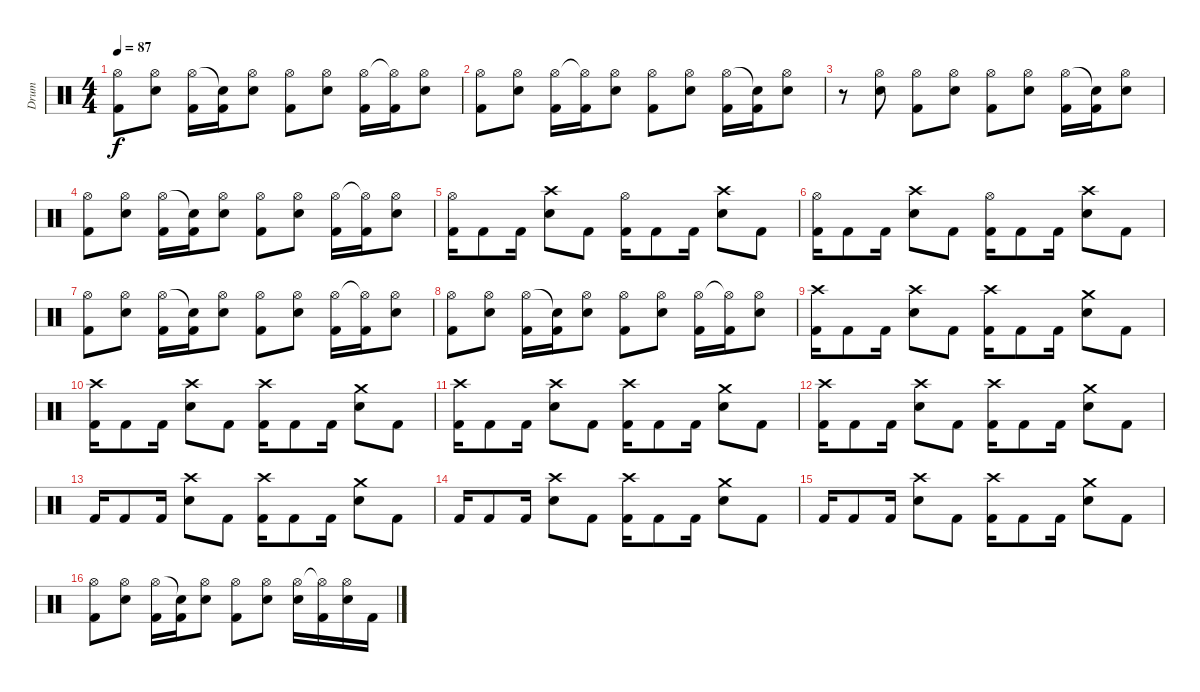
\track ("Drum" "Drum") {instrument percussion}
\staff {score}
\articulation defaults
\ts (4 4)
\tempo 87
\clef neutral
\ks c
("Hi-Hat (open)" "Kick (hit) 2").8{dy f} ("Hi-Hat (open)" "Electric Snare (hit)").8 ("Hi-Hat (open)" "Kick (hit) 2").16 ("Snare (hit)"{t} "Kick (hit) 2").16 ("Hi-Hat (open)" "Electric Snare (hit)").8 ("Hi-Hat (open)" "Kick (hit) 2").8 ("Hi-Hat (open)" "Electric Snare (hit)").8 ("Hi-Hat (open)" "Kick (hit) 2").16 ("Hi-Hat (open)"{t} "Kick (hit) 2").16 ("Hi-Hat (open)" "Electric Snare (hit)").8 |
("Hi-Hat (open)" "Kick (hit) 2").8 ("Hi-Hat (open)" "Electric Snare (hit)").8 ("Hi-Hat (open)" "Kick (hit) 2").16 ("Hi-Hat (open)"{t} "Kick (hit) 2").16 ("Hi-Hat (open)" "Electric Snare (hit)").8 ("Hi-Hat (open)" "Kick (hit) 2").8 ("Hi-Hat (open)" "Electric Snare (hit)").8 ("Hi-Hat (open)" "Kick (hit) 2").16 ("Snare (hit)"{t} "Kick (hit) 2").16 ("Hi-Hat (open)" "Electric Snare (hit)").8 |
r.8 ("Hi-Hat (open)" "Electric Snare (hit)").8 ("Hi-Hat (open)" "Kick (hit) 2").8 ("Hi-Hat (open)" "Electric Snare (hit)").8 ("Hi-Hat (open)" "Kick (hit) 2").8 ("Hi-Hat (open)" "Electric Snare (hit)").8 ("Hi-Hat (open)" "Kick (hit) 2").16 ("Snare (hit)"{t} "Kick (hit) 2").16 ("Hi-Hat (open)" "Electric Snare (hit)").8 |
("Hi-Hat (open)" "Kick (hit) 2").8 ("Hi-Hat (open)" "Electric Snare (hit)").8 ("Hi-Hat (open)" "Kick (hit) 2").16 ("Snare (hit)"{t} "Kick (hit) 2").16 ("Hi-Hat (open)" "Electric Snare (hit)").8 ("Hi-Hat (open)" "Kick (hit) 2").8 ("Hi-Hat (open)" "Electric Snare (hit)").8 ("Hi-Hat (open)" "Kick (hit) 2").16 ("Hi-Hat (open)"{t} "Kick (hit) 2").16 ("Hi-Hat (open)" "Electric Snare (hit)").8 |
("Hi-Hat (open)" "Kick (hit) 2").16 "Kick (hit) 2".8 "Kick (hit) 2".16 ("Crash high (hit)" "Electric Snare (hit)").8 "Kick (hit) 2".8 ("Hi-Hat (open)" "Kick (hit) 2").16 "Kick (hit) 2".8 "Kick (hit) 2".16 ("Crash high (hit)" "Electric Snare (hit)").8 "Kick (hit) 2".8 |
("Hi-Hat (open)" "Kick (hit) 2").16 "Kick (hit) 2".8 "Kick (hit) 2".16 ("Crash high (hit)" "Electric Snare (hit)").8 "Kick (hit) 2".8 ("Hi-Hat (open)" "Kick (hit) 2").16 "Kick (hit) 2".8 "Kick (hit) 2".16 ("Crash high (hit)" "Electric Snare (hit)").8 "Kick (hit) 2".8 |
("Hi-Hat (open)" "Kick (hit) 2").8 ("Hi-Hat (open)" "Electric Snare (hit)").8 ("Hi-Hat (open)" "Kick (hit) 2").16 ("Snare (hit)"{t} "Kick (hit) 2").16 ("Hi-Hat (open)" "Electric Snare (hit)").8 ("Hi-Hat (open)" "Kick (hit) 2").8 ("Hi-Hat (open)" "Electric Snare (hit)").8 ("Hi-Hat (open)" "Kick (hit) 2").16 ("Hi-Hat (open)"{t} "Kick (hit) 2").16 ("Hi-Hat (open)" "Electric Snare (hit)").8 |
("Hi-Hat (open)" "Kick (hit) 2").8 ("Hi-Hat (open)" "Electric Snare (hit)").8 ("Hi-Hat (open)" "Kick (hit) 2").16 ("Snare (hit)"{t} "Kick (hit) 2").16 ("Hi-Hat (open)" "Electric Snare (hit)").8 ("Hi-Hat (open)" "Kick (hit) 2").8 ("Hi-Hat (open)" "Electric Snare (hit)").8 ("Hi-Hat (open)" "Kick (hit) 2").16 ("Hi-Hat (open)"{t} "Kick (hit) 2").16 ("Hi-Hat (open)" "Electric Snare (hit)").8 |
("Crash high (hit)" "Kick (hit) 2").16 "Kick (hit) 2".8 "Kick (hit) 2".16 ("Crash high (hit)" "Electric Snare (hit)").8 "Kick (hit) 2".8 ("Crash high (hit)" "Kick (hit) 2").16 "Kick (hit) 2".8 "Kick (hit) 2".16 ("Crash medium (hit)" "Electric Snare (hit)").8 "Kick (hit) 2".8 |
("Crash high (hit)" "Kick (hit) 2").16 "Kick (hit) 2".8 "Kick (hit) 2".16 ("Crash high (hit)" "Electric Snare (hit)").8 "Kick (hit) 2".8 ("Crash high (hit)" "Kick (hit) 2").16 "Kick (hit) 2".8 "Kick (hit) 2".16 ("Crash medium (hit)" "Electric Snare (hit)").8 "Kick (hit) 2".8 |
("Crash high (hit)" "Kick (hit) 2").16 "Kick (hit) 2".8 "Kick (hit) 2".16 ("Crash high (hit)" "Electric Snare (hit)").8 "Kick (hit) 2".8 ("Crash high (hit)" "Kick (hit) 2").16 "Kick (hit) 2".8 "Kick (hit) 2".16 ("Crash medium (hit)" "Electric Snare (hit)").8 "Kick (hit) 2".8 |
("Crash high (hit)" "Kick (hit) 2").16 "Kick (hit) 2".8 "Kick (hit) 2".16 ("Crash high (hit)" "Electric Snare (hit)").8 "Kick (hit) 2".8 ("Crash high (hit)" "Kick (hit) 2").16 "Kick (hit) 2".8 "Kick (hit) 2".16 ("Crash medium (hit)" "Electric Snare (hit)").8 "Kick (hit) 2".8 |
"Kick (hit) 2".16 "Kick (hit) 2".8 "Kick (hit) 2".16 ("Crash high (hit)" "Electric Snare (hit)").8 "Kick (hit) 2".8 ("Crash high (hit)" "Kick (hit) 2").16 "Kick (hit) 2".8 "Kick (hit) 2".16 ("Crash medium (hit)" "Electric Snare (hit)").8 "Kick (hit) 2".8 |
"Kick (hit) 2".16 "Kick (hit) 2".8 "Kick (hit) 2".16 ("Crash high (hit)" "Electric Snare (hit)").8 "Kick (hit) 2".8 ("Crash high (hit)" "Kick (hit) 2").16 "Kick (hit) 2".8 "Kick (hit) 2".16 ("Crash medium (hit)" "Electric Snare (hit)").8 "Kick (hit) 2".8 |
"Kick (hit) 2".16 "Kick (hit) 2".8 "Kick (hit) 2".16 ("Crash high (hit)" "Electric Snare (hit)").8 "Kick (hit) 2".8 ("Crash high (hit)" "Kick (hit) 2").16 "Kick (hit) 2".8 "Kick (hit) 2".16 ("Crash medium (hit)" "Electric Snare (hit)").8 "Kick (hit) 2".8 |
("Hi-Hat (open)" "Kick (hit) 2").8 ("Hi-Hat (open)" "Electric Snare (hit)").8 ("Hi-Hat (open)" "Kick (hit) 2").16 ("Snare (hit)"{t} "Kick (hit) 2").16 ("Hi-Hat (open)" "Electric Snare (hit)").8 ("Hi-Hat (open)" "Kick (hit) 2").8 ("Hi-Hat (open)" "Electric Snare (hit)").8 ("Hi-Hat (open)" "Electric Snare (hit)").16 ("Hi-Hat (open)"{t} "Kick (hit) 2").16 ("Hi-Hat (open)" "Electric Snare (hit)").16 "Kick (hit) 2".16
